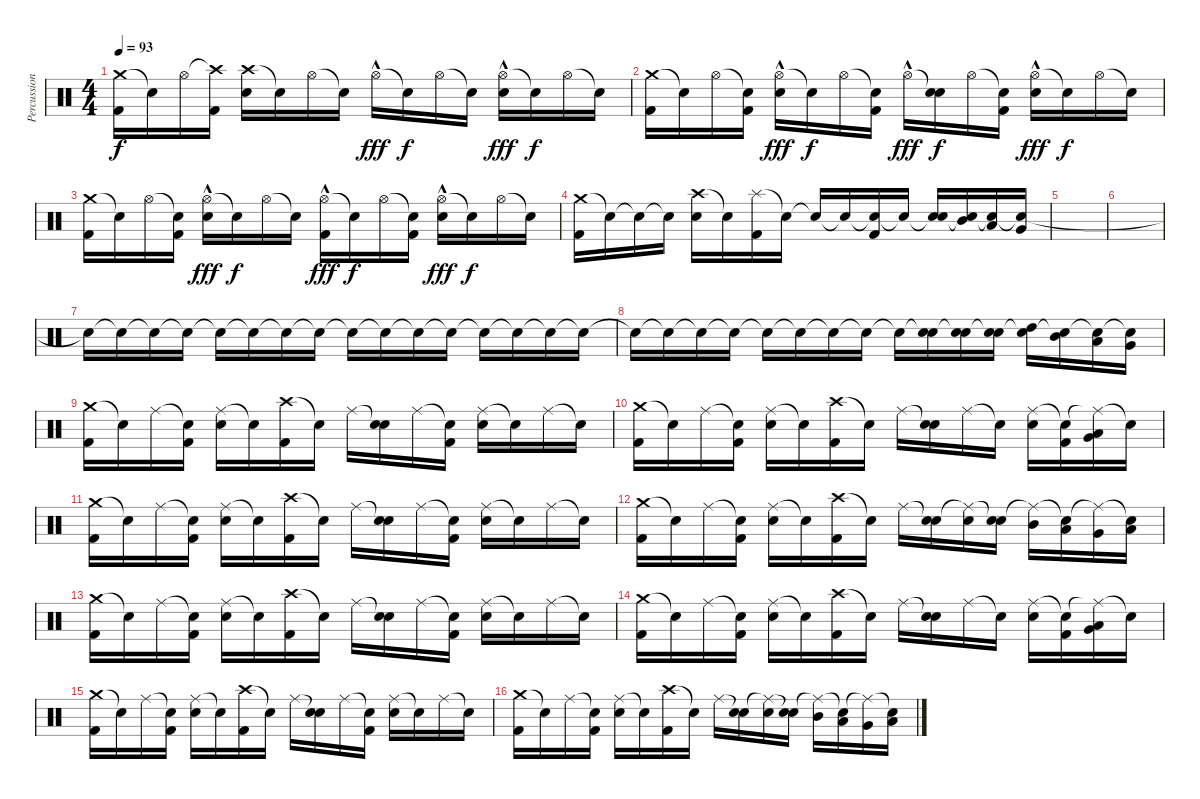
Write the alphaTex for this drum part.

\track ("Percussion" "Percussion") {instrument percussion}
\staff {score}
\articulation defaults
\ts (4 4)
\tempo 93
\clef neutral
\ks c
("Crash medium (hit)" "Kick (hit) 2").16{dy f} "Snare (hit)"{t}.16 "Hi-Hat (open)".16 ("Crash high (hit)"{t} "Kick (hit) 2").16 ("Crash high (hit)" "Electric Snare (hit)").16 "Snare (hit)"{t}.16 "Hi-Hat (open)".16 "Snare (hit)"{t}.16 "Hi-Hat (open)"{hac}.16{dy fff} "Snare (hit)"{t}.16{dy f} "Hi-Hat (open)".16 "Snare (hit)"{t}.16 ("Hi-Hat (open)"{hac} "Electric Snare (hit)").16{dy fff} "Snare (hit)"{t}.16{dy f} "Hi-Hat (open)".16 "Snare (hit)"{t}.16 |
("Crash medium (hit)" "Kick (hit) 2").16 "Snare (hit)"{t}.16 "Hi-Hat (open)".16 ("Snare (hit)"{t} "Kick (hit) 2").16 ("Hi-Hat (open)"{hac} "Electric Snare (hit)").16{dy fff} "Snare (hit)"{t}.16{dy f} "Hi-Hat (open)".16 ("Snare (hit)"{t} "Kick (hit) 2").16 "Hi-Hat (open)"{hac}.16{dy fff} ("Snare (hit)"{t} "Electric Snare (hit)").16{dy f} "Hi-Hat (open)".16 ("Snare (hit)"{t} "Kick (hit) 2").16 ("Hi-Hat (open)"{hac} "Electric Snare (hit)").16{dy fff} "Snare (hit)"{t}.16{dy f} "Hi-Hat (open)".16 "Snare (hit)"{t}.16 |
("Crash medium (hit)" "Kick (hit) 2").16 "Snare (hit)"{t}.16 "Hi-Hat (open)".16 ("Snare (hit)"{t} "Kick (hit) 2").16 ("Hi-Hat (open)"{hac} "Electric Snare (hit)").16{dy fff} "Snare (hit)"{t}.16{dy f} "Hi-Hat (open)".16 "Snare (hit)"{t}.16 ("Hi-Hat (open)"{hac} "Kick (hit) 2").16{dy fff} "Snare (hit)"{t}.16{dy f} "Hi-Hat (open)".16 ("Snare (hit)"{t} "Kick (hit) 2").16 ("Hi-Hat (open)"{hac} "Electric Snare (hit)").16{dy fff} "Snare (hit)"{t}.16{dy f} "Hi-Hat (open)".16 "Snare (hit)"{t}.16 |
("Crash medium (hit)" "Kick (hit) 2").16 "Snare (hit)"{t}.16 "Snare (hit)"{t}.16 "Snare (hit)"{t}.16 ("Crash high (hit)" "Electric Snare (hit)").16 "Snare (hit)"{t}.16 ("Splash (hit)" "Kick (hit) 2").16 "Snare (hit)"{t}.16 "Snare (hit)"{t}.16 "Snare (hit)"{t}.16 ("Snare (hit)"{t} "Kick (hit) 2").16 "Snare (hit)"{t}.16 ("Snare (hit)"{t} "Electric Snare (hit)").16 ("Snare (hit)"{t} "Mid Tom (hit)").16 ("Snare (hit)"{t} "Low Tom (hit)").16 ("Snare (hit)"{t} "Very Low Tom (hit)").16 |
|
|
"Snare (hit)"{t}.16 "Snare (hit)"{t}.16 "Snare (hit)"{t}.16 "Snare (hit)"{t}.16 "Snare (hit)"{t}.16 "Snare (hit)"{t}.16 "Snare (hit)"{t}.16 "Snare (hit)"{t}.16 "Snare (hit)"{t}.16 "Snare (hit)"{t}.16 "Snare (hit)"{t}.16 "Snare (hit)"{t}.16 "Snare (hit)"{t}.16 "Snare (hit)"{t}.16 "Snare (hit)"{t}.16 "Snare (hit)"{t}.16 |
"Snare (hit)"{t}.16 "Snare (hit)"{t}.16 "Snare (hit)"{t}.16 "Snare (hit)"{t}.16 "Snare (hit)"{t}.16 "Snare (hit)"{t}.16 "Snare (hit)"{t}.16 "Snare (hit)"{t}.16 "Snare (hit)"{t}.16 ("Snare (hit)"{t} "Electric Snare (hit)").16 ("Snare (hit)"{t} "Electric Snare (hit)").16 ("Snare (hit)"{t} "Electric Snare (hit)").16 ("Snare (hit)"{t} "High Tom (hit)").16 ("Snare (hit)"{t} "Mid Tom (hit)").16 ("Snare (hit)"{t} "Low Tom (hit)").16 ("Snare (hit)"{t} "Very Low Tom (hit)").16 |
("Crash medium (hit)" "Kick (hit) 2").16 "Snare (hit)"{t}.16 "Ride (middle)".16 ("Snare (hit)"{t} "Kick (hit) 2").16 ("Ride (middle)" "Electric Snare (hit)").16 "Snare (hit)"{t}.16 ("Crash high (hit)" "Kick (hit) 2").16 "Snare (hit)"{t}.16 "Ride (middle)".16 ("Snare (hit)"{t} "Electric Snare (hit)").16 "Ride (middle)".16 ("Snare (hit)"{t} "Kick (hit) 2").16 ("Ride (middle)" "Electric Snare (hit)").16 "Snare (hit)"{t}.16 "Ride (middle)".16 "Snare (hit)"{t}.16 |
("Crash medium (hit)" "Kick (hit) 2").16 "Snare (hit)"{t}.16 "Ride (middle)".16 ("Snare (hit)"{t} "Kick (hit) 2").16 ("Ride (middle)" "Electric Snare (hit)").16 "Snare (hit)"{t}.16 ("Crash high (hit)" "Kick (hit) 2").16 "Snare (hit)"{t}.16 "Ride (middle)".16 ("Snare (hit)"{t} "Electric Snare (hit)").16 "Ride (middle)".16 "Snare (hit)"{t}.16 ("Ride (middle)" "Electric Snare (hit)").16 ("Snare (hit)"{t} "Kick (hit) 2").16 ("Ride (middle)"{t} "Low Floor Tom (hit)" "Very Low Tom (hit)").16 "Snare (hit)"{t}.16 |
("Crash medium (hit)" "Kick (hit) 2").16 "Snare (hit)"{t}.16 "Ride (middle)".16 ("Snare (hit)"{t} "Kick (hit) 2").16 ("Ride (middle)" "Electric Snare (hit)").16 "Snare (hit)"{t}.16 ("Crash high (hit)" "Kick (hit) 2").16 "Snare (hit)"{t}.16 "Ride (middle)".16 ("Snare (hit)"{t} "Electric Snare (hit)").16 "Ride (middle)".16 ("Snare (hit)"{t} "Kick (hit) 2").16 ("Ride (middle)" "Electric Snare (hit)").16 "Snare (hit)"{t}.16 "Ride (middle)".16 "Snare (hit)"{t}.16 |
("Crash medium (hit)" "Kick (hit) 2").16 "Snare (hit)"{t}.16 "Ride (middle)".16 ("Snare (hit)"{t} "Kick (hit) 2").16 ("Ride (middle)" "Electric Snare (hit)").16 "Snare (hit)"{t}.16 ("Crash high (hit)" "Kick (hit) 2").16 "Snare (hit)"{t}.16 "Ride (middle)".16 ("Snare (hit)"{t} "Electric Snare (hit)").16 ("Ride (middle)"{t} "Electric Snare (hit)").16 ("Snare (hit)"{t} "Electric Snare (hit)").16 ("Ride (middle)"{t} "Mid Tom (hit)").16 ("Snare (hit)"{t} "Low Tom (hit)").16 ("Ride (middle)"{t} "Very Low Tom (hit)").16 ("Snare (hit)"{t} "Low Floor Tom (hit)").16 |
("Crash medium (hit)" "Kick (hit) 2").16 "Snare (hit)"{t}.16 "Ride (middle)".16 ("Snare (hit)"{t} "Kick (hit) 2").16 ("Ride (middle)" "Electric Snare (hit)").16 "Snare (hit)"{t}.16 ("Crash high (hit)" "Kick (hit) 2").16 "Snare (hit)"{t}.16 "Ride (middle)".16 ("Snare (hit)"{t} "Electric Snare (hit)").16 "Ride (middle)".16 ("Snare (hit)"{t} "Kick (hit) 2").16 ("Ride (middle)" "Electric Snare (hit)").16 "Snare (hit)"{t}.16 "Ride (middle)".16 "Snare (hit)"{t}.16 |
("Crash medium (hit)" "Kick (hit) 2").16 "Snare (hit)"{t}.16 "Ride (middle)".16 ("Snare (hit)"{t} "Kick (hit) 2").16 ("Ride (middle)" "Electric Snare (hit)").16 "Snare (hit)"{t}.16 ("Crash high (hit)" "Kick (hit) 2").16 "Snare (hit)"{t}.16 "Ride (middle)".16 ("Snare (hit)"{t} "Electric Snare (hit)").16 "Ride (middle)".16 "Snare (hit)"{t}.16 ("Ride (middle)" "Electric Snare (hit)").16 ("Snare (hit)"{t} "Kick (hit) 2").16 ("Ride (middle)"{t} "Low Floor Tom (hit)" "Very Low Tom (hit)").16 "Snare (hit)"{t}.16 |
("Crash medium (hit)" "Kick (hit) 2").16 "Snare (hit)"{t}.16 "Ride (middle)".16 ("Snare (hit)"{t} "Kick (hit) 2").16 ("Ride (middle)" "Electric Snare (hit)").16 "Snare (hit)"{t}.16 ("Crash high (hit)" "Kick (hit) 2").16 "Snare (hit)"{t}.16 "Ride (middle)".16 ("Snare (hit)"{t} "Electric Snare (hit)").16 "Ride (middle)".16 ("Snare (hit)"{t} "Kick (hit) 2").16 ("Ride (middle)" "Electric Snare (hit)").16 "Snare (hit)"{t}.16 "Ride (middle)".16 "Snare (hit)"{t}.16 |
("Crash medium (hit)" "Kick (hit) 2").16 "Snare (hit)"{t}.16 "Ride (middle)".16 ("Snare (hit)"{t} "Kick (hit) 2").16 ("Ride (middle)" "Electric Snare (hit)").16 "Snare (hit)"{t}.16 ("Crash high (hit)" "Kick (hit) 2").16 "Snare (hit)"{t}.16 "Ride (middle)".16 ("Snare (hit)"{t} "Electric Snare (hit)").16 ("Ride (middle)"{t} "Electric Snare (hit)").16 ("Snare (hit)"{t} "Electric Snare (hit)").16 ("Ride (middle)"{t} "Mid Tom (hit)").16 ("Snare (hit)"{t} "Low Tom (hit)").16 ("Ride (middle)"{t} "Very Low Tom (hit)").16 ("Snare (hit)"{t} "Low Floor Tom (hit)").16
